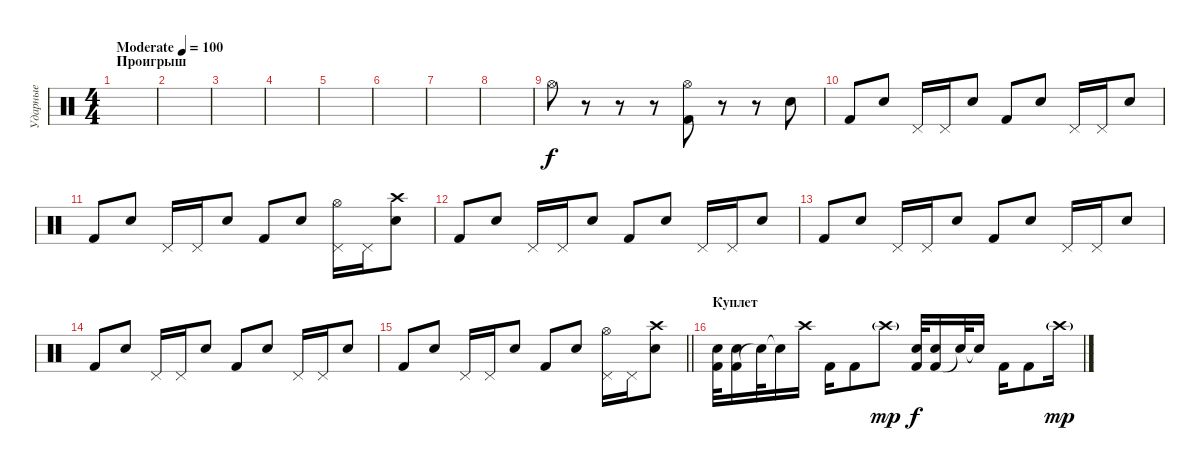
\track ("Ударные" "Ударные") {instrument percussion}
\staff {score}
\articulation defaults
\ts (4 4)
\section ("" "Проигрыш")
\tempo (100 "Moderate")
\clef neutral
\ks c
|
|
|
|
|
|
|
|
"Hi-Hat (open)".8 r.8 r.8 r.8 ("Hi-Hat (open)" "Kick (hit) 2").8 r.8 r.8 "Electric Snare (hit)".8 |
"Kick (hit) 2".8 "Electric Snare (hit)".8 "Pedal Hi-Hat (hit)".16 "Pedal Hi-Hat (hit)".16 "Electric Snare (hit)".8 "Kick (hit) 2".8 "Electric Snare (hit)".8 "Pedal Hi-Hat (hit)".16 "Pedal Hi-Hat (hit)".16 "Electric Snare (hit)".8 |
"Kick (hit) 2".8 "Electric Snare (hit)".8 "Pedal Hi-Hat (hit)".16 "Pedal Hi-Hat (hit)".16 "Electric Snare (hit)".8 "Kick (hit) 2".8 "Electric Snare (hit)".8 ("Pedal Hi-Hat (hit)" "Hi-Hat (open)").16 "Pedal Hi-Hat (hit)".16 ("Crash high (hit)" "Electric Snare (hit)").8 |
"Kick (hit) 2".8 "Electric Snare (hit)".8 "Pedal Hi-Hat (hit)".16 "Pedal Hi-Hat (hit)".16 "Electric Snare (hit)".8 "Kick (hit) 2".8 "Electric Snare (hit)".8 "Pedal Hi-Hat (hit)".16 "Pedal Hi-Hat (hit)".16 "Electric Snare (hit)".8 |
"Kick (hit) 2".8 "Electric Snare (hit)".8 "Pedal Hi-Hat (hit)".16 "Pedal Hi-Hat (hit)".16 "Electric Snare (hit)".8 "Kick (hit) 2".8 "Electric Snare (hit)".8 "Pedal Hi-Hat (hit)".16 "Pedal Hi-Hat (hit)".16 "Electric Snare (hit)".8 |
"Kick (hit) 2".8 "Electric Snare (hit)".8 "Pedal Hi-Hat (hit)".16 "Pedal Hi-Hat (hit)".16 "Electric Snare (hit)".8 "Kick (hit) 2".8 "Electric Snare (hit)".8 "Pedal Hi-Hat (hit)".16 "Pedal Hi-Hat (hit)".16 "Electric Snare (hit)".8 |
\barLineRight lightlight "Kick (hit) 2".8 "Electric Snare (hit)".8 "Pedal Hi-Hat (hit)".16 "Pedal Hi-Hat (hit)".16 "Electric Snare (hit)".8 "Kick (hit) 2".8 "Electric Snare (hit)".8
("Pedal Hi-Hat (hit)" "Hi-Hat (open)").16 "Pedal Hi-Hat (hit)".16 ("Crash high (hit)" "Electric Snare (hit)").8 |
\section ("" "Куплет")
("Electric Snare (hit)" "Kick (hit) 2").32 ("Kick (hit) 2" "Electric Snare (hit)").16 "Snare (hit)"{t}.32 "Snare (hit)"{t}.16 "Crash high (hit)".16 "Kick (hit) 2".16 "Kick (hit) 2".8 "Crash high (hit)"{g}.8{dy mp} ("Electric Snare (hit)" "Kick (hit) 2").32{dy f} ("Kick (hit) 2" "Electric Snare (hit)").16 "Snare (hit)"{t}.32 "Snare (hit)"{t}.16 "Kick (hit) 2".16 "Kick (hit) 2".8 "Crash high (hit)"{g}.16{dy mp}
